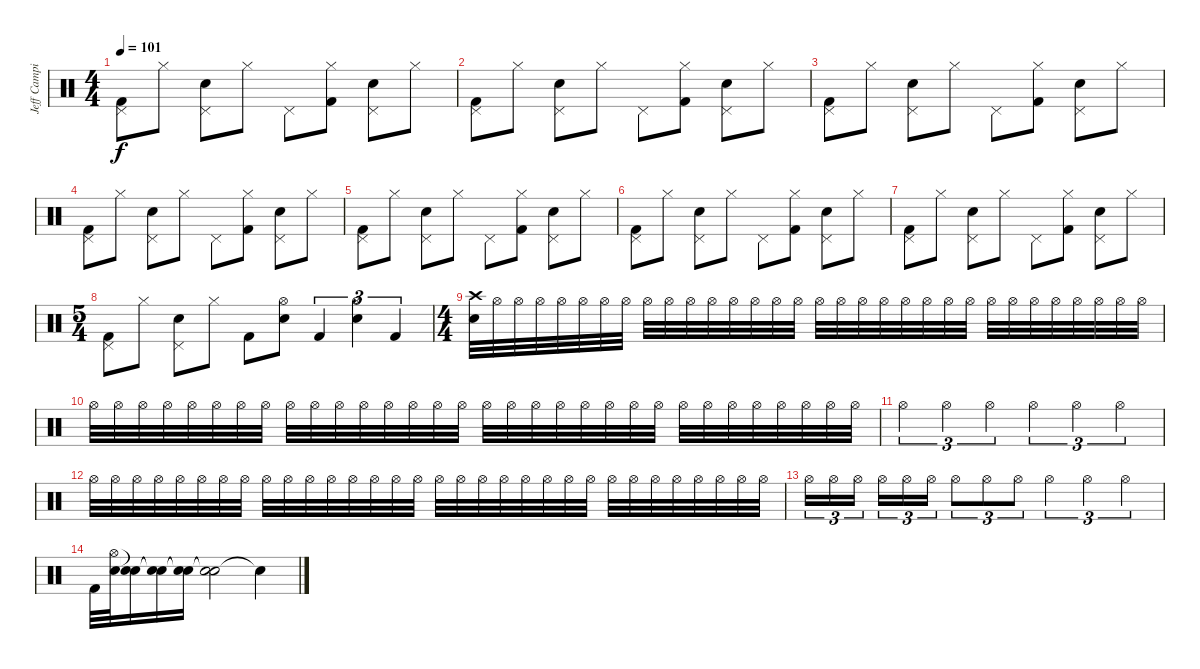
\track ("Jeff Campitelli " "Jeff Campi") {instrument percussion}
\staff {score}
\articulation defaults
\ts (4 4)
\tempo 101
\clef neutral
\ks c
("Pedal Hi-Hat (hit)" "Kick (hit) 2").8{dy f} "Hi-Hat (closed)".8 ("Pedal Hi-Hat (hit)" "Electric Snare (hit)").8 "Hi-Hat (closed)".8 "Pedal Hi-Hat (hit)".8 ("Hi-Hat (closed)" "Kick (hit) 2").8 ("Pedal Hi-Hat (hit)" "Electric Snare (hit)").8 "Hi-Hat (closed)".8 |
("Pedal Hi-Hat (hit)" "Kick (hit) 2").8 "Hi-Hat (closed)".8 ("Pedal Hi-Hat (hit)" "Electric Snare (hit)").8 "Hi-Hat (closed)".8 "Pedal Hi-Hat (hit)".8 ("Hi-Hat (closed)" "Kick (hit) 2").8 ("Pedal Hi-Hat (hit)" "Electric Snare (hit)").8 "Hi-Hat (closed)".8 |
("Pedal Hi-Hat (hit)" "Kick (hit) 2").8 "Hi-Hat (closed)".8 ("Pedal Hi-Hat (hit)" "Electric Snare (hit)").8 "Hi-Hat (closed)".8 "Pedal Hi-Hat (hit)".8 ("Hi-Hat (closed)" "Kick (hit) 2").8 ("Pedal Hi-Hat (hit)" "Electric Snare (hit)").8 "Hi-Hat (closed)".8 |
("Pedal Hi-Hat (hit)" "Kick (hit) 2").8 "Hi-Hat (closed)".8 ("Pedal Hi-Hat (hit)" "Electric Snare (hit)").8 "Hi-Hat (closed)".8 "Pedal Hi-Hat (hit)".8 ("Hi-Hat (closed)" "Kick (hit) 2").8 ("Pedal Hi-Hat (hit)" "Electric Snare (hit)").8 "Hi-Hat (closed)".8 |
("Pedal Hi-Hat (hit)" "Kick (hit) 2").8 "Hi-Hat (closed)".8 ("Pedal Hi-Hat (hit)" "Electric Snare (hit)").8 "Hi-Hat (closed)".8 "Pedal Hi-Hat (hit)".8 ("Hi-Hat (closed)" "Kick (hit) 2").8 ("Pedal Hi-Hat (hit)" "Electric Snare (hit)").8 "Hi-Hat (closed)".8 |
("Pedal Hi-Hat (hit)" "Kick (hit) 2").8 "Hi-Hat (closed)".8 ("Pedal Hi-Hat (hit)" "Electric Snare (hit)").8 "Hi-Hat (closed)".8 "Pedal Hi-Hat (hit)".8 ("Hi-Hat (closed)" "Kick (hit) 2").8 ("Pedal Hi-Hat (hit)" "Electric Snare (hit)").8 "Hi-Hat (closed)".8 |
("Pedal Hi-Hat (hit)" "Kick (hit) 2").8 "Hi-Hat (closed)".8 ("Pedal Hi-Hat (hit)" "Electric Snare (hit)").8 "Hi-Hat (closed)".8 "Pedal Hi-Hat (hit)".8 ("Hi-Hat (closed)" "Kick (hit) 2").8 ("Pedal Hi-Hat (hit)" "Electric Snare (hit)").8 "Hi-Hat (closed)".8 |
\ts (5 4)
("Pedal Hi-Hat (hit)" "Kick (hit) 2").8 "Hi-Hat (closed)".8 ("Pedal Hi-Hat (hit)" "Electric Snare (hit)").8 "Hi-Hat (closed)".8 "Kick (hit) 2".8 ("Hi-Hat (open)" "Electric Snare (hit)").8 "Kick (hit) 2".4{tu (3 2)} ("Hi-Hat (open)" "Electric Snare (hit)").4{tu (3 2)} "Kick (hit) 2".4{tu (3 2)} |
\ts (4 4)
("Crash high (hit)" "Electric Snare (hit)").32 "Hi-Hat (open)".32 "Hi-Hat (open)".32 "Hi-Hat (open)".32 "Hi-Hat (open)".32 "Hi-Hat (open)".32 "Hi-Hat (open)".32 "Hi-Hat (open)".32 "Hi-Hat (open)".32 "Hi-Hat (open)".32 "Hi-Hat (open)".32 "Hi-Hat (open)".32 "Hi-Hat (open)".32 "Hi-Hat (open)".32 "Hi-Hat (open)".32 "Hi-Hat (open)".32 "Hi-Hat (open)".32 "Hi-Hat (open)".32 "Hi-Hat (open)".32 "Hi-Hat (open)".32 "Hi-Hat (open)".32 "Hi-Hat (open)".32 "Hi-Hat (open)".32 "Hi-Hat (open)".32 "Hi-Hat (open)".32 "Hi-Hat (open)".32 "Hi-Hat (open)".32 "Hi-Hat (open)".32 "Hi-Hat (open)".32 "Hi-Hat (open)".32 "Hi-Hat (open)".32 "Hi-Hat (open)".32 |
"Hi-Hat (open)".32 "Hi-Hat (open)".32 "Hi-Hat (open)".32 "Hi-Hat (open)".32 "Hi-Hat (open)".32 "Hi-Hat (open)".32 "Hi-Hat (open)".32 "Hi-Hat (open)".32 "Hi-Hat (open)".32 "Hi-Hat (open)".32 "Hi-Hat (open)".32 "Hi-Hat (open)".32 "Hi-Hat (open)".32 "Hi-Hat (open)".32 "Hi-Hat (open)".32 "Hi-Hat (open)".32 "Hi-Hat (open)".32 "Hi-Hat (open)".32 "Hi-Hat (open)".32 "Hi-Hat (open)".32 "Hi-Hat (open)".32 "Hi-Hat (open)".32 "Hi-Hat (open)".32 "Hi-Hat (open)".32 "Hi-Hat (open)".32 "Hi-Hat (open)".32 "Hi-Hat (open)".32 "Hi-Hat (open)".32 "Hi-Hat (open)".32 "Hi-Hat (open)".32 "Hi-Hat (open)".32 "Hi-Hat (open)".32 |
"Hi-Hat (open)".4{tu (3 2)} "Hi-Hat (open)".4{tu (3 2)} "Hi-Hat (open)".4{tu (3 2)} "Hi-Hat (open)".4{tu (3 2)} "Hi-Hat (open)".4{tu (3 2)} "Hi-Hat (open)".4{tu (3 2)} |
"Hi-Hat (open)".32 "Hi-Hat (open)".32 "Hi-Hat (open)".32 "Hi-Hat (open)".32 "Hi-Hat (open)".32 "Hi-Hat (open)".32 "Hi-Hat (open)".32 "Hi-Hat (open)".32 "Hi-Hat (open)".32 "Hi-Hat (open)".32 "Hi-Hat (open)".32 "Hi-Hat (open)".32 "Hi-Hat (open)".32 "Hi-Hat (open)".32 "Hi-Hat (open)".32 "Hi-Hat (open)".32 "Hi-Hat (open)".32 "Hi-Hat (open)".32 "Hi-Hat (open)".32 "Hi-Hat (open)".32 "Hi-Hat (open)".32 "Hi-Hat (open)".32 "Hi-Hat (open)".32 "Hi-Hat (open)".32 "Hi-Hat (open)".32 "Hi-Hat (open)".32 "Hi-Hat (open)".32 "Hi-Hat (open)".32 "Hi-Hat (open)".32 "Hi-Hat (open)".32 "Hi-Hat (open)".32 "Hi-Hat (open)".32 |
"Hi-Hat (open)".16{tu (3 2)} "Hi-Hat (open)".16{tu (3 2)} "Hi-Hat (open)".16{tu (3 2) beam splitsecondary} "Hi-Hat (open)".16{tu (3 2)} "Hi-Hat (open)".16{tu (3 2)} "Hi-Hat (open)".16{tu (3 2)} "Hi-Hat (open)".8{tu (3 2)} "Hi-Hat (open)".8{tu (3 2)} "Hi-Hat (open)".8{tu (3 2)} "Hi-Hat (open)".4{tu (3 2)} "Hi-Hat (open)".4{tu (3 2)} "Hi-Hat (open)".4{tu (3 2)} |
"Kick (hit) 2".32 ("Electric Snare (hit)" "Hi-Hat (open)").32 ("Snare (hit)"{t} "Snare (hit)"{t}).16 ("Snare (hit)"{t} "Snare (hit)"{t}).16 ("Snare (hit)"{t} "Snare (hit)"{t}).16 ("Snare (hit)"{t} "Snare (hit)"{t}).2 "Snare (hit)"{t}.4
